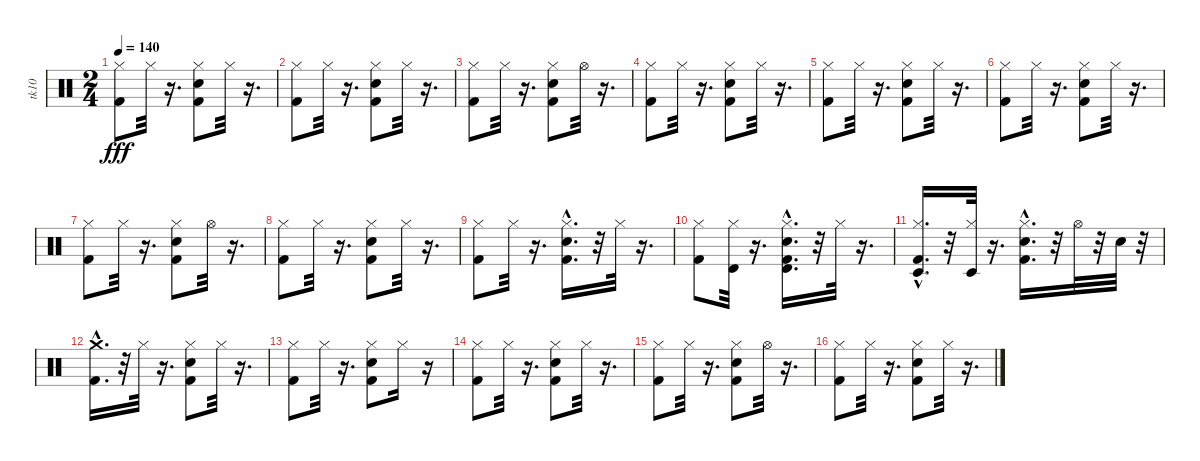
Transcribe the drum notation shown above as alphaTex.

\track ("tk10" "tk10") {instrument percussion}
\staff {score}
\articulation defaults
\ts (2 4)
\tempo 140
\clef neutral
\ks c
("Kick (hit) 2" "Hi-Hat (closed)").8{dy fff} "Hi-Hat (closed)".32 r.16{d} ("Hi-Hat (closed)" "Snare (hit) 2" "Kick (hit) 2").8 "Hi-Hat (closed)".32 r.16{d} |
("Kick (hit) 2" "Hi-Hat (closed)").8 "Hi-Hat (closed)".32 r.16{d} ("Snare (hit) 2" "Kick (hit) 2" "Hi-Hat (closed)").8 "Hi-Hat (closed)".32 r.16{d} |
("Kick (hit) 2" "Hi-Hat (closed)").8 "Hi-Hat (closed)".32 r.16{d} ("Kick (hit) 2" "Snare (hit) 2" "Hi-Hat (closed)").8 "Hi-Hat (open)".32 r.16{d} |
("Kick (hit) 2" "Hi-Hat (closed)").8 "Hi-Hat (closed)".32 r.16{d} ("Hi-Hat (closed)" "Snare (hit) 2" "Kick (hit) 2").8 "Hi-Hat (closed)".32 r.16{d} |
("Kick (hit) 2" "Hi-Hat (closed)").8 "Hi-Hat (closed)".32 r.16{d} ("Hi-Hat (closed)" "Snare (hit) 2" "Kick (hit) 2").8 "Hi-Hat (closed)".32 r.16{d} |
("Kick (hit) 2" "Hi-Hat (closed)").8 "Hi-Hat (closed)".32 r.16{d} ("Snare (hit) 2" "Kick (hit) 2" "Hi-Hat (closed)").8 "Hi-Hat (closed)".32 r.16{d} |
("Kick (hit) 2" "Hi-Hat (closed)").8 "Hi-Hat (closed)".32 r.16{d} ("Snare (hit) 2" "Kick (hit) 2" "Hi-Hat (closed)").8 "Hi-Hat (open)".32 r.16{d} |
("Kick (hit) 2" "Hi-Hat (closed)").8 "Hi-Hat (closed)".32 r.16{d} ("Snare (hit) 2" "Kick (hit) 2" "Hi-Hat (closed)").8 "Hi-Hat (closed)".32 r.16{d} |
("Kick (hit) 2" "Hi-Hat (closed)").8 "Hi-Hat (closed)".32 r.16{d} ("Hi-Hat (closed)" "Snare (hit) 2"{hac} "Kick (hit) 2"{hac}).16{d} r.32 "Hi-Hat (closed)".32 r.16{d} |
("Kick (hit) 2" "Hi-Hat (closed)").8 ("Timbale high (hit)" "Hi-Hat (closed)").32 r.16{d} ("Timbale high (hit)" "Snare (hit) 2"{hac} "Kick (hit) 2"{hac} "Hi-Hat (closed)").16{d} r.32 "Hi-Hat (closed)".32 r.16{d} |
("Timbale low (hit)" "Hi-Hat (closed)" "Kick (hit) 2"{hac}).16{d} r.32 ("Timbale low (hit)" "Hi-Hat (closed)").32 r.16{d} ("Kick (hit) 2"{hac} "Hi-Hat (closed)" "Snare (hit) 2"{hac}).16{d} r.32 "Hi-Hat (open)".32 r.32 "Snare (hit) 2".32 r.32 |
("Kick (hit) 2"{hac} "Crash medium (hit)").16{d} r.32 "Hi-Hat (closed)".32 r.16{d} ("Kick (hit) 2" "Snare (hit) 2" "Hi-Hat (closed)").8 "Hi-Hat (closed)".32 r.16{d} |
("Kick (hit) 2" "Hi-Hat (closed)").8 "Hi-Hat (closed)".32 r.16{d} ("Kick (hit) 2" "Hi-Hat (closed)" "Snare (hit) 2").8 "Hi-Hat (closed)".16 r.16 |
("Kick (hit) 2" "Hi-Hat (closed)").8 "Hi-Hat (closed)".32 r.16{d} ("Hi-Hat (closed)" "Snare (hit) 2" "Kick (hit) 2").8 "Hi-Hat (closed)".32 r.16{d} |
("Kick (hit) 2" "Hi-Hat (closed)").8 "Hi-Hat (closed)".32 r.16{d} ("Kick (hit) 2" "Snare (hit) 2" "Hi-Hat (closed)").8 "Hi-Hat (open)".32 r.16{d} |
("Kick (hit) 2" "Hi-Hat (closed)").8 "Hi-Hat (closed)".32 r.16{d} ("Snare (hit) 2" "Kick (hit) 2" "Hi-Hat (closed)").8 "Hi-Hat (closed)".32 r.16{d}
